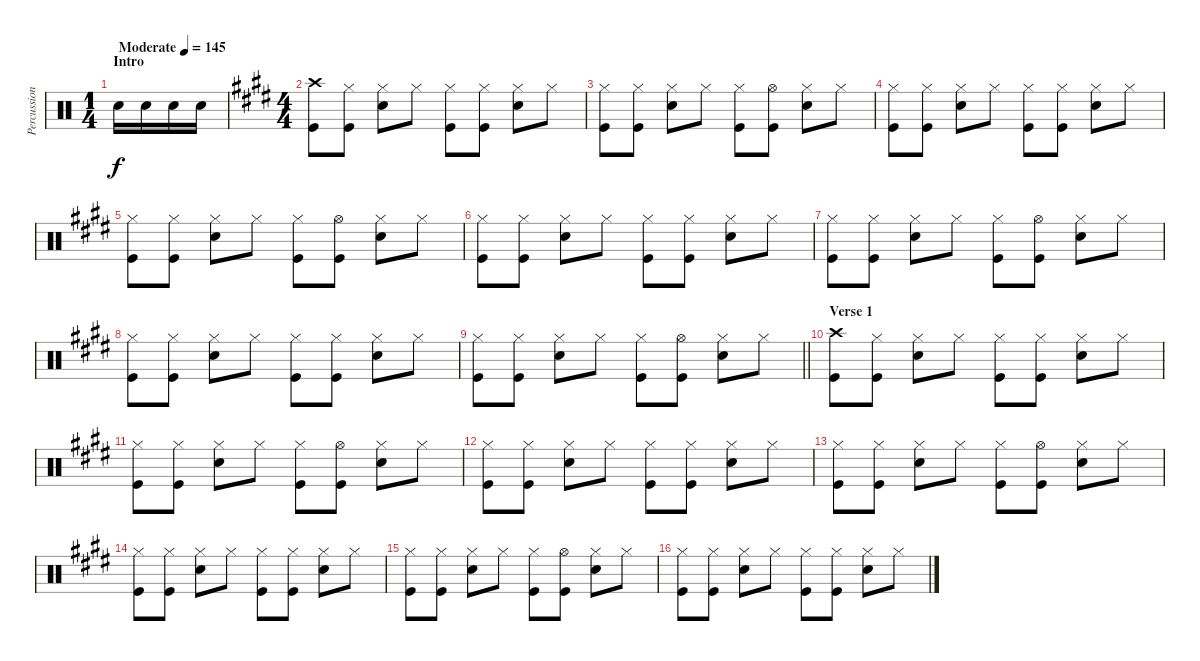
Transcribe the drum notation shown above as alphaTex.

\track ("Percussion" "Percussion") {instrument percussion}
\staff {score}
\articulation defaults
\ts (1 4)
\section ("" "Intro")
\tempo (145 "Moderate")
\clef neutral
\ks c "Snare (hit) 2".16{dy f} "Snare (hit) 2".16 "Snare (hit) 2".16 "Snare (hit) 2".16
|
\ts (4 4)
\ks e
("Crash high (hit)" "Kick (hit)").8 ("Hi-Hat (closed)" "Kick (hit)").8 ("Hi-Hat (closed)" "Snare (hit) 2").8 "Hi-Hat (closed)".8 ("Hi-Hat (closed)" "Kick (hit)").8 ("Hi-Hat (closed)" "Kick (hit)").8 ("Hi-Hat (closed)" "Snare (hit) 2").8 "Hi-Hat (closed)".8 |
("Hi-Hat (closed)" "Kick (hit)").8 ("Hi-Hat (closed)" "Kick (hit)").8 ("Hi-Hat (closed)" "Snare (hit) 2").8 "Hi-Hat (closed)".8 ("Hi-Hat (closed)" "Kick (hit)").8 ("Hi-Hat (open)" "Kick (hit)").8 ("Hi-Hat (closed)" "Snare (hit) 2").8 "Hi-Hat (closed)".8 |
("Hi-Hat (closed)" "Kick (hit)").8 ("Hi-Hat (closed)" "Kick (hit)").8 ("Hi-Hat (closed)" "Snare (hit) 2").8 "Hi-Hat (closed)".8 ("Hi-Hat (closed)" "Kick (hit)").8 ("Hi-Hat (closed)" "Kick (hit)").8 ("Hi-Hat (closed)" "Snare (hit) 2").8 "Hi-Hat (closed)".8 |
("Hi-Hat (closed)" "Kick (hit)").8 ("Hi-Hat (closed)" "Kick (hit)").8 ("Hi-Hat (closed)" "Snare (hit) 2").8 "Hi-Hat (closed)".8 ("Hi-Hat (closed)" "Kick (hit)").8 ("Hi-Hat (open)" "Kick (hit)").8 ("Hi-Hat (closed)" "Snare (hit) 2").8 "Hi-Hat (closed)".8 |
("Hi-Hat (closed)" "Kick (hit)").8 ("Hi-Hat (closed)" "Kick (hit)").8 ("Hi-Hat (closed)" "Snare (hit) 2").8 "Hi-Hat (closed)".8 ("Hi-Hat (closed)" "Kick (hit)").8 ("Hi-Hat (closed)" "Kick (hit)").8 ("Hi-Hat (closed)" "Snare (hit) 2").8 "Hi-Hat (closed)".8 |
("Hi-Hat (closed)" "Kick (hit)").8 ("Hi-Hat (closed)" "Kick (hit)").8 ("Hi-Hat (closed)" "Snare (hit) 2").8 "Hi-Hat (closed)".8 ("Hi-Hat (closed)" "Kick (hit)").8 ("Hi-Hat (open)" "Kick (hit)").8 ("Hi-Hat (closed)" "Snare (hit) 2").8 "Hi-Hat (closed)".8 |
("Hi-Hat (closed)" "Kick (hit)").8 ("Hi-Hat (closed)" "Kick (hit)").8 ("Hi-Hat (closed)" "Snare (hit) 2").8 "Hi-Hat (closed)".8 ("Hi-Hat (closed)" "Kick (hit)").8 ("Hi-Hat (closed)" "Kick (hit)").8 ("Hi-Hat (closed)" "Snare (hit) 2").8 "Hi-Hat (closed)".8 |
\barLineRight lightlight
("Hi-Hat (closed)" "Kick (hit)").8 ("Hi-Hat (closed)" "Kick (hit)").8 ("Hi-Hat (closed)" "Snare (hit) 2").8 "Hi-Hat (closed)".8 ("Hi-Hat (closed)" "Kick (hit)").8 ("Hi-Hat (open)" "Kick (hit)").8 ("Hi-Hat (closed)" "Snare (hit) 2").8 "Hi-Hat (closed)".8 |
\section ("" "Verse 1")
("Crash high (hit)" "Kick (hit)").8 ("Hi-Hat (closed)" "Kick (hit)").8 ("Hi-Hat (closed)" "Snare (hit) 2").8 "Hi-Hat (closed)".8 ("Hi-Hat (closed)" "Kick (hit)").8 ("Hi-Hat (closed)" "Kick (hit)").8 ("Hi-Hat (closed)" "Snare (hit) 2").8 "Hi-Hat (closed)".8 |
("Hi-Hat (closed)" "Kick (hit)").8 ("Hi-Hat (closed)" "Kick (hit)").8 ("Hi-Hat (closed)" "Snare (hit) 2").8 "Hi-Hat (closed)".8 ("Hi-Hat (closed)" "Kick (hit)").8 ("Hi-Hat (open)" "Kick (hit)").8 ("Hi-Hat (closed)" "Snare (hit) 2").8 "Hi-Hat (closed)".8 |
("Hi-Hat (closed)" "Kick (hit)").8 ("Hi-Hat (closed)" "Kick (hit)").8 ("Hi-Hat (closed)" "Snare (hit) 2").8 "Hi-Hat (closed)".8 ("Hi-Hat (closed)" "Kick (hit)").8 ("Hi-Hat (closed)" "Kick (hit)").8 ("Hi-Hat (closed)" "Snare (hit) 2").8 "Hi-Hat (closed)".8 |
("Hi-Hat (closed)" "Kick (hit)").8 ("Hi-Hat (closed)" "Kick (hit)").8 ("Hi-Hat (closed)" "Snare (hit) 2").8 "Hi-Hat (closed)".8 ("Hi-Hat (closed)" "Kick (hit)").8 ("Hi-Hat (open)" "Kick (hit)").8 ("Hi-Hat (closed)" "Snare (hit) 2").8 "Hi-Hat (closed)".8 |
("Hi-Hat (closed)" "Kick (hit)").8 ("Hi-Hat (closed)" "Kick (hit)").8 ("Hi-Hat (closed)" "Snare (hit) 2").8 "Hi-Hat (closed)".8 ("Hi-Hat (closed)" "Kick (hit)").8 ("Hi-Hat (closed)" "Kick (hit)").8 ("Hi-Hat (closed)" "Snare (hit) 2").8 "Hi-Hat (closed)".8 |
("Hi-Hat (closed)" "Kick (hit)").8 ("Hi-Hat (closed)" "Kick (hit)").8 ("Hi-Hat (closed)" "Snare (hit) 2").8 "Hi-Hat (closed)".8 ("Hi-Hat (closed)" "Kick (hit)").8 ("Hi-Hat (open)" "Kick (hit)").8 ("Hi-Hat (closed)" "Snare (hit) 2").8 "Hi-Hat (closed)".8 |
("Hi-Hat (closed)" "Kick (hit)").8 ("Hi-Hat (closed)" "Kick (hit)").8 ("Hi-Hat (closed)" "Snare (hit) 2").8 "Hi-Hat (closed)".8 ("Hi-Hat (closed)" "Kick (hit)").8 ("Hi-Hat (closed)" "Kick (hit)").8 ("Hi-Hat (closed)" "Snare (hit) 2").8 "Hi-Hat (closed)".8
